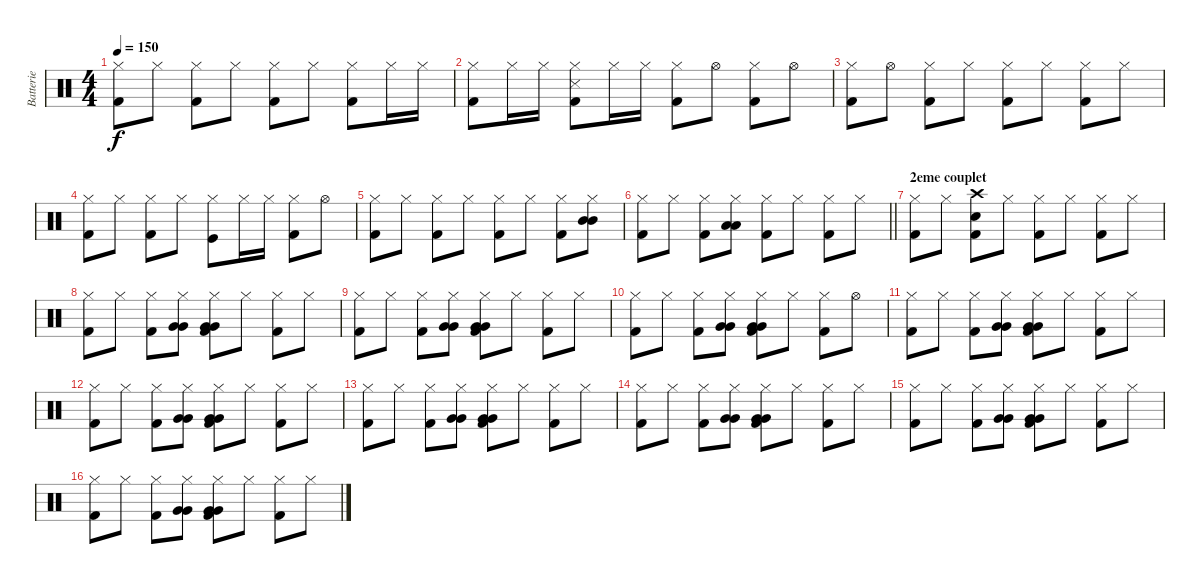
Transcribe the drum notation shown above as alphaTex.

\track ("Batterie" "Batterie") {instrument percussion}
\staff {score}
\articulation defaults
\ts (4 4)
\tempo 150
\clef neutral
\ks c
("Hi-Hat (closed)" "Kick (hit) 2").8{dy f} "Hi-Hat (closed)".8 ("Hi-Hat (closed)" "Kick (hit) 2").8 "Hi-Hat (closed)".8 ("Hi-Hat (closed)" "Kick (hit) 2").8 "Hi-Hat (closed)".8 ("Hi-Hat (closed)" "Kick (hit) 2").8 "Hi-Hat (closed)".16 "Hi-Hat (closed)".16 |
("Hi-Hat (closed)" "Kick (hit) 2").8 "Hi-Hat (closed)".16 "Hi-Hat (closed)".16 ("Hi-Hat (closed)" "Kick (hit) 2" "Snare (side stick) 3").8 "Hi-Hat (closed)".16 "Hi-Hat (closed)".16 ("Hi-Hat (closed)" "Kick (hit) 2").8 "Hi-Hat (open)".8 ("Hi-Hat (closed)" "Kick (hit) 2").8 "Hi-Hat (open)".8 |
("Hi-Hat (closed)" "Kick (hit) 2").8 "Hi-Hat (open)".8 ("Hi-Hat (closed)" "Kick (hit) 2").8 "Hi-Hat (closed)".8 ("Hi-Hat (closed)" "Kick (hit) 2").8 "Hi-Hat (closed)".8 ("Hi-Hat (closed)" "Kick (hit) 2").8 "Hi-Hat (closed)".8 |
("Hi-Hat (closed)" "Kick (hit) 2").8 "Hi-Hat (closed)".8 ("Hi-Hat (closed)" "Kick (hit) 2").8 "Hi-Hat (closed)".8 ("Hi-Hat (closed)" "Kick (hit)").8 "Hi-Hat (closed)".16 "Hi-Hat (closed)".16 ("Hi-Hat (closed)" "Kick (hit) 2").8 "Hi-Hat (open)".8 |
("Hi-Hat (closed)" "Kick (hit) 2").8 "Hi-Hat (closed)".8 ("Hi-Hat (closed)" "Kick (hit) 2").8 "Hi-Hat (closed)".8 ("Hi-Hat (closed)" "Kick (hit) 2").8 "Hi-Hat (closed)".8 ("Hi-Hat (closed)" "Kick (hit) 2").8 ("Hi-Hat (closed)" "Mid Tom (hit)" "Mid Tom (hit)").8 |
\barLineRight lightlight
("Hi-Hat (closed)" "Kick (hit) 2").8 "Hi-Hat (closed)".8 ("Hi-Hat (closed)" "Kick (hit) 2").8 ("Hi-Hat (closed)" "Low Tom (hit)" "Low Tom (hit)").8 ("Hi-Hat (closed)" "Kick (hit) 2").8 "Hi-Hat (closed)".8 ("Hi-Hat (closed)" "Kick (hit) 2").8 "Hi-Hat (closed)".8 |
\section ("" "2eme couplet")
("Hi-Hat (closed)" "Kick (hit) 2").8 "Hi-Hat (closed)".8 ("Crash high (hit)" "Electric Snare (hit)" "Kick (hit) 2").8 "Hi-Hat (closed)".8 ("Hi-Hat (closed)" "Kick (hit) 2").8 "Hi-Hat (closed)".8 ("Hi-Hat (closed)" "Kick (hit) 2").8 "Hi-Hat (closed)".8 |
("Hi-Hat (closed)" "Kick (hit) 2").8 "Hi-Hat (closed)".8 ("Hi-Hat (closed)" "Kick (hit) 2").8 ("Hi-Hat (closed)" "Very Low Tom (hit)" "Very Low Tom (hit)").8 ("Hi-Hat (closed)" "Very Low Tom (hit)" "Kick (hit) 2" "Very Low Tom (hit)").8 "Hi-Hat (closed)".8 ("Hi-Hat (closed)" "Kick (hit) 2").8 "Hi-Hat (closed)".8 |
("Hi-Hat (closed)" "Kick (hit) 2").8 "Hi-Hat (closed)".8 ("Hi-Hat (closed)" "Kick (hit) 2").8 ("Hi-Hat (closed)" "Very Low Tom (hit)" "Very Low Tom (hit)").8 ("Hi-Hat (closed)" "Very Low Tom (hit)" "Kick (hit) 2" "Very Low Tom (hit)").8 "Hi-Hat (closed)".8 ("Hi-Hat (closed)" "Kick (hit) 2").8 "Hi-Hat (closed)".8 |
("Hi-Hat (closed)" "Kick (hit) 2").8 "Hi-Hat (closed)".8 ("Hi-Hat (closed)" "Kick (hit) 2").8 ("Hi-Hat (closed)" "Very Low Tom (hit)" "Very Low Tom (hit)").8 ("Hi-Hat (closed)" "Very Low Tom (hit)" "Kick (hit) 2" "Very Low Tom (hit)").8 "Hi-Hat (closed)".8 ("Hi-Hat (closed)" "Kick (hit) 2").8 "Hi-Hat (open)".8 |
("Hi-Hat (closed)" "Kick (hit) 2").8 "Hi-Hat (closed)".8 ("Hi-Hat (closed)" "Kick (hit) 2").8 ("Hi-Hat (closed)" "Very Low Tom (hit)" "Very Low Tom (hit)").8 ("Hi-Hat (closed)" "Very Low Tom (hit)" "Kick (hit) 2" "Very Low Tom (hit)").8 "Hi-Hat (closed)".8 ("Hi-Hat (closed)" "Kick (hit) 2").8 "Hi-Hat (closed)".8 |
("Hi-Hat (closed)" "Kick (hit) 2").8 "Hi-Hat (closed)".8 ("Hi-Hat (closed)" "Kick (hit) 2").8 ("Hi-Hat (closed)" "Very Low Tom (hit)" "Very Low Tom (hit)").8 ("Hi-Hat (closed)" "Very Low Tom (hit)" "Kick (hit) 2" "Very Low Tom (hit)").8 "Hi-Hat (closed)".8 ("Hi-Hat (closed)" "Kick (hit) 2").8 "Hi-Hat (closed)".8 |
("Hi-Hat (closed)" "Kick (hit) 2").8 "Hi-Hat (closed)".8 ("Hi-Hat (closed)" "Kick (hit) 2").8 ("Hi-Hat (closed)" "Very Low Tom (hit)" "Very Low Tom (hit)").8 ("Hi-Hat (closed)" "Very Low Tom (hit)" "Kick (hit) 2" "Very Low Tom (hit)").8 "Hi-Hat (closed)".8 ("Hi-Hat (closed)" "Kick (hit) 2").8 "Hi-Hat (closed)".8 |
("Hi-Hat (closed)" "Kick (hit) 2").8 "Hi-Hat (closed)".8 ("Hi-Hat (closed)" "Kick (hit) 2").8 ("Hi-Hat (closed)" "Very Low Tom (hit)" "Very Low Tom (hit)").8 ("Hi-Hat (closed)" "Very Low Tom (hit)" "Kick (hit) 2" "Very Low Tom (hit)").8 "Hi-Hat (closed)".8 ("Hi-Hat (closed)" "Kick (hit) 2").8 "Hi-Hat (closed)".8 |
("Hi-Hat (closed)" "Kick (hit) 2").8 "Hi-Hat (closed)".8 ("Hi-Hat (closed)" "Kick (hit) 2").8 ("Hi-Hat (closed)" "Very Low Tom (hit)" "Very Low Tom (hit)").8 ("Hi-Hat (closed)" "Very Low Tom (hit)" "Kick (hit) 2" "Very Low Tom (hit)").8 "Hi-Hat (closed)".8 ("Hi-Hat (closed)" "Kick (hit) 2").8 "Hi-Hat (closed)".8 |
("Hi-Hat (closed)" "Kick (hit) 2").8 "Hi-Hat (closed)".8 ("Hi-Hat (closed)" "Kick (hit) 2").8 ("Hi-Hat (closed)" "Very Low Tom (hit)" "Very Low Tom (hit)").8 ("Hi-Hat (closed)" "Very Low Tom (hit)" "Kick (hit) 2" "Very Low Tom (hit)").8 "Hi-Hat (closed)".8 ("Hi-Hat (closed)" "Kick (hit) 2").8 "Hi-Hat (closed)".8
